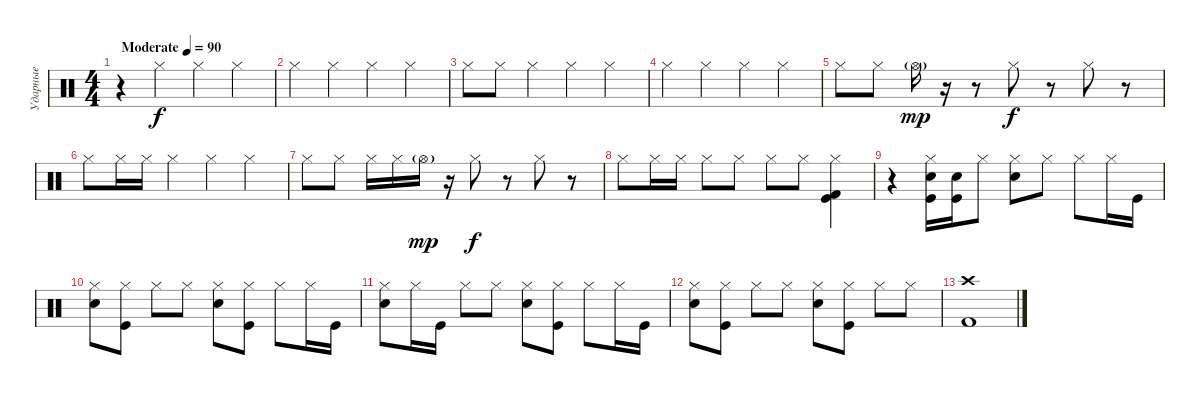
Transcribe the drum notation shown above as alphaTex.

\track ("Ударные" "Ударные") {instrument percussion}
\staff {score}
\articulation defaults
\ts (4 4)
\tempo (90 "Moderate")
\clef neutral
\ks c
r.4{dy f} "Hi-Hat (closed)".4 "Hi-Hat (closed)".4 "Hi-Hat (closed)".4 |
"Hi-Hat (closed)".4 "Hi-Hat (closed)".4 "Hi-Hat (closed)".4 "Hi-Hat (closed)".4 |
"Hi-Hat (closed)".8 "Hi-Hat (closed)".8 "Hi-Hat (closed)".4 "Hi-Hat (closed)".4 "Hi-Hat (closed)".4 |
"Hi-Hat (closed)".4 "Hi-Hat (closed)".4 "Hi-Hat (closed)".4 "Hi-Hat (closed)".4 |
"Hi-Hat (closed)".8 "Hi-Hat (closed)".8 "Hi-Hat (open)"{g}.16{dy mp} r.16 r.8 "Hi-Hat (closed)".8{dy f} r.8 "Hi-Hat (closed)".8 r.8 |
"Hi-Hat (closed)".8 "Hi-Hat (closed)".16 "Hi-Hat (closed)".16 "Hi-Hat (closed)".4 "Hi-Hat (closed)".4 "Hi-Hat (closed)".4 |
"Hi-Hat (closed)".8 "Hi-Hat (closed)".8 "Hi-Hat (closed)".16 "Hi-Hat (closed)".16 "Hi-Hat (open)"{g}.16{dy mp} r.16 "Hi-Hat (closed)".8{dy f} r.8 "Hi-Hat (closed)".8 r.8 |
"Hi-Hat (closed)".8 "Hi-Hat (closed)".16 "Hi-Hat (closed)".16 "Hi-Hat (closed)".8 "Hi-Hat (closed)".8 "Hi-Hat (closed)".8 "Hi-Hat (closed)".8 ("Hi-Hat (closed)" "Kick (hit) 2" "Kick (hit)").4 |
r.4 ("Hi-Hat (closed)" "Electric Snare (hit)" "Kick (hit)").16 ("Electric Snare (hit)" "Kick (hit)").16 "Hi-Hat (closed)".8 ("Hi-Hat (closed)" "Electric Snare (hit)").8 "Hi-Hat (closed)".8 "Hi-Hat (closed)".8 "Hi-Hat (closed)".16 "Kick (hit)".16 |
("Hi-Hat (closed)" "Electric Snare (hit)").8 ("Hi-Hat (closed)" "Kick (hit)").8 "Hi-Hat (closed)".8 "Hi-Hat (closed)".8 ("Hi-Hat (closed)" "Electric Snare (hit)").8 ("Hi-Hat (closed)" "Kick (hit)").8 "Hi-Hat (closed)".8 "Hi-Hat (closed)".16 "Kick (hit)".16 |
("Hi-Hat (closed)" "Snare (hit) 2").8 "Hi-Hat (closed)".16 "Kick (hit)".16 "Hi-Hat (closed)".8 "Hi-Hat (closed)".8 ("Hi-Hat (closed)" "Snare (hit) 2").8 ("Hi-Hat (closed)" "Kick (hit)").8 "Hi-Hat (closed)".8 "Hi-Hat (closed)".16 "Kick (hit)".16 |
("Hi-Hat (closed)" "Snare (hit) 2").8 ("Hi-Hat (closed)" "Kick (hit)").8 "Hi-Hat (closed)".8 "Hi-Hat (closed)".8 ("Hi-Hat (closed)" "Snare (hit) 2").8 ("Hi-Hat (closed)" "Kick (hit)").8 "Hi-Hat (closed)".8 "Hi-Hat (closed)".8 |
("Kick (hit) 2" "Crash high (hit)").1
